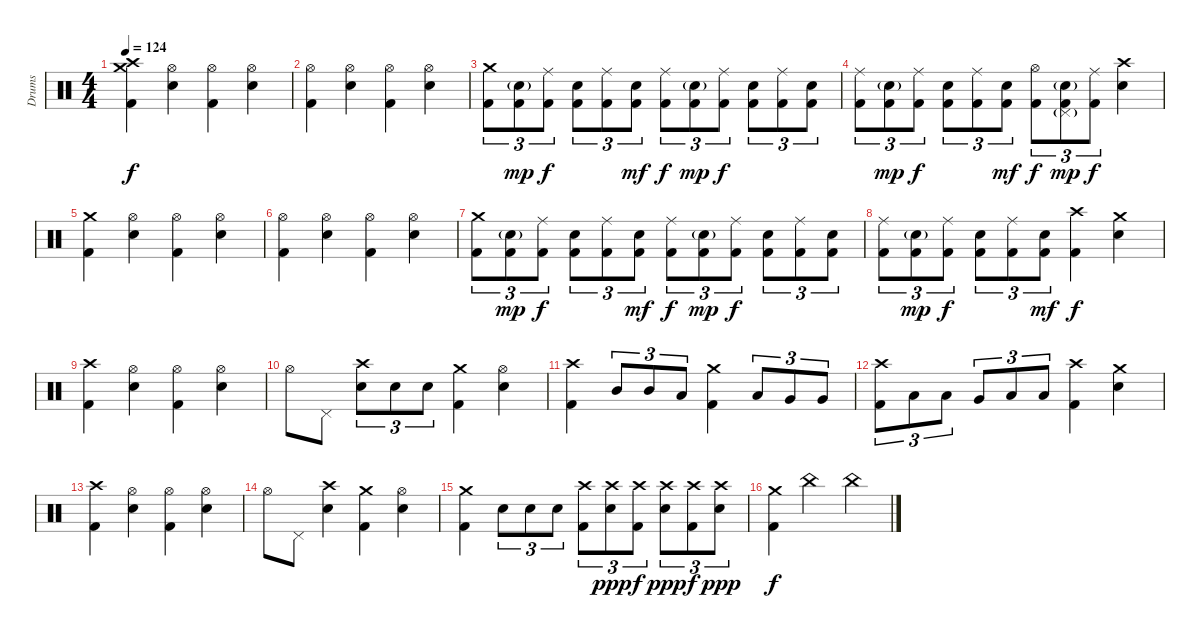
\track ("Drums" "Drums") {instrument percussion}
\staff {score}
\articulation defaults
\ts (4 4)
\tempo 124
\clef neutral
\ks c
("Crash medium (hit)" "Crash high (hit)" "Kick (hit) 2").4{dy f} ("Hi-Hat (open)" "Snare (hit) 2").4 ("Hi-Hat (open)" "Kick (hit) 2").4 ("Hi-Hat (open)" "Snare (hit) 2").4 |
("Hi-Hat (open)" "Kick (hit) 2").4 ("Hi-Hat (open)" "Snare (hit) 2").4 ("Hi-Hat (open)" "Kick (hit) 2").4 ("Hi-Hat (open)" "Snare (hit) 2").4 |
("Crash medium (hit)" "Kick (hit) 2").8{tu (3 2)} ("Snare (hit) 2"{g} "Kick (hit) 2").8{tu (3 2) dy mp} ("Ride (middle)" "Kick (hit) 2").8{tu (3 2) dy f} ("Snare (hit) 2" "Kick (hit) 2").8{tu (3 2)} ("Ride (middle)" "Kick (hit) 2").8{tu (3 2)} ("Snare (hit) 2" "Kick (hit) 2").8{tu (3 2) dy mf} ("Ride (middle)" "Kick (hit) 2").8{tu (3 2) dy f} ("Snare (hit) 2"{g} "Kick (hit) 2").8{tu (3 2) dy mp} ("Ride (middle)" "Kick (hit) 2").8{tu (3 2) dy f} ("Snare (hit) 2" "Kick (hit) 2").8{tu (3 2)} ("Ride (middle)" "Kick (hit) 2").8{tu (3 2)} ("Snare (hit) 2" "Kick (hit) 2").8{tu (3 2)} |
("Ride (middle)" "Kick (hit) 2").8{tu (3 2)} ("Snare (hit) 2"{g} "Kick (hit) 2").8{tu (3 2) dy mp} ("Ride (middle)" "Kick (hit) 2").8{tu (3 2) dy f} ("Snare (hit) 2" "Kick (hit) 2").8{tu (3 2)} ("Ride (middle)" "Kick (hit) 2").8{tu (3 2)} ("Snare (hit) 2" "Kick (hit) 2").8{tu (3 2) dy mf} ("Hi-Hat (open)" "Kick (hit) 2").8{tu (3 2) dy f} ("Pedal Hi-Hat (hit)"{g} "Snare (hit) 2"{g} "Kick (hit) 2").8{tu (3 2) dy mp} ("Ride (middle)" "Kick (hit) 2").8{tu (3 2) dy f} ("Crash high (hit)" "Snare (hit) 2").4 |
("Crash medium (hit)" "Kick (hit) 2").4 ("Hi-Hat (open)" "Snare (hit) 2").4 ("Hi-Hat (open)" "Kick (hit) 2").4 ("Hi-Hat (open)" "Snare (hit) 2").4 |
("Hi-Hat (open)" "Kick (hit) 2").4 ("Hi-Hat (open)" "Snare (hit) 2").4 ("Hi-Hat (open)" "Kick (hit) 2").4 ("Hi-Hat (open)" "Snare (hit) 2").4 |
("Crash medium (hit)" "Kick (hit) 2").8{tu (3 2)} ("Snare (hit) 2"{g} "Kick (hit) 2").8{tu (3 2) dy mp} ("Ride (middle)" "Kick (hit) 2").8{tu (3 2) dy f} ("Snare (hit) 2" "Kick (hit) 2").8{tu (3 2)} ("Ride (middle)" "Kick (hit) 2").8{tu (3 2)} ("Snare (hit) 2" "Kick (hit) 2").8{tu (3 2) dy mf} ("Ride (middle)" "Kick (hit) 2").8{tu (3 2) dy f} ("Snare (hit) 2"{g} "Kick (hit) 2").8{tu (3 2) dy mp} ("Ride (middle)" "Kick (hit) 2").8{tu (3 2) dy f} ("Snare (hit) 2" "Kick (hit) 2").8{tu (3 2)} ("Ride (middle)" "Kick (hit) 2").8{tu (3 2)} ("Snare (hit) 2" "Kick (hit) 2").8{tu (3 2)} |
("Ride (middle)" "Kick (hit) 2").8{tu (3 2)} ("Snare (hit) 2"{g} "Kick (hit) 2").8{tu (3 2) dy mp} ("Ride (middle)" "Kick (hit) 2").8{tu (3 2) dy f} ("Snare (hit) 2" "Kick (hit) 2").8{tu (3 2)} ("Ride (middle)" "Kick (hit) 2").8{tu (3 2)} ("Snare (hit) 2" "Kick (hit) 2").8{tu (3 2) dy mf} ("Crash high (hit)" "Kick (hit) 2").4{dy f} ("Crash medium (hit)" "Snare (hit) 2").4 |
("Crash high (hit)" "Kick (hit) 2").4 ("Hi-Hat (open)" "Snare (hit) 2").4 ("Hi-Hat (open)" "Kick (hit) 2").4 ("Hi-Hat (open)" "Snare (hit) 2").4 |
"Hi-Hat (open)".8 "Pedal Hi-Hat (hit)".8 ("Crash high (hit)" "Snare (hit) 2").8{tu (3 2)} "Snare (hit) 2".8{tu (3 2)} "Snare (hit) 2".8{tu (3 2)} ("Crash medium (hit)" "Kick (hit) 2").4 ("Hi-Hat (open)" "Snare (hit) 2").4 |
("Crash high (hit)" "Kick (hit) 2").4 "Mid Tom (hit)".8{tu (3 2)} "Mid Tom (hit)".8{tu (3 2)} "Low Tom (hit)".8{tu (3 2)} ("Crash medium (hit)" "Kick (hit) 2").4 "Low Tom (hit)".8{tu (3 2)} "Very Low Tom (hit)".8{tu (3 2)} "Very Low Tom (hit)".8{tu (3 2)} |
("Crash high (hit)" "Kick (hit) 2").8{tu (3 2)} "Low Tom (hit)".8{tu (3 2)} "Low Tom (hit)".8{tu (3 2)} "Very Low Tom (hit)".8{tu (3 2)} "Low Floor Tom (hit)".8{tu (3 2)} "Low Floor Tom (hit)".8{tu (3 2)} ("Crash high (hit)" "Kick (hit) 2").4 ("Crash medium (hit)" "Snare (hit) 2").4 |
("Crash high (hit)" "Kick (hit) 2").4 ("Hi-Hat (open)" "Snare (hit) 2").4 ("Hi-Hat (open)" "Kick (hit) 2").4 ("Hi-Hat (open)" "Snare (hit) 2").4 |
"Hi-Hat (open)".8 "Pedal Hi-Hat (hit)".8 ("Crash high (hit)" "Snare (hit) 2").4 ("Crash medium (hit)" "Kick (hit) 2").4 ("Hi-Hat (open)" "Snare (hit) 2").4 |
("Crash medium (hit)" "Kick (hit) 2").4 "Snare (hit) 2".8{tu (3 2)} "Snare (hit) 2".8{tu (3 2)} "Snare (hit) 2".8{tu (3 2)} ("Crash high (hit)" "Kick (hit) 2").8{tu (3 2)} ("Crash high (hit)" "Snare (hit) 2").8{tu (3 2) dy ppp} ("Crash high (hit)" "Kick (hit) 2").8{tu (3 2) dy f} ("Crash high (hit)" "Snare (hit) 2").8{tu (3 2) dy ppp} ("Crash high (hit)" "Kick (hit) 2").8{tu (3 2) dy f} ("Crash high (hit)" "Snare (hit) 2").8{tu (3 2) dy ppp} |
("Crash medium (hit)" "Kick (hit) 2").4{dy f} "China (hit)".2 "China (hit)".4
